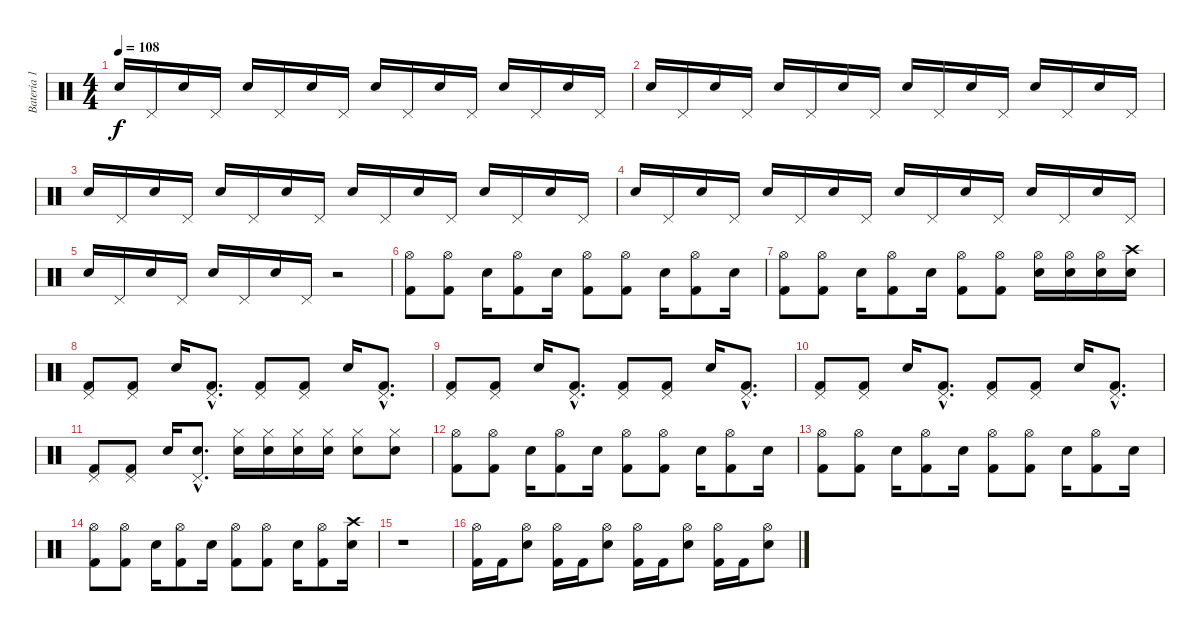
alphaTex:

\track ("Batería 1" "Batería 1") {instrument percussion}
\staff {score}
\articulation defaults
\ts (4 4)
\tempo 108
\clef neutral
\ks c "Snare (hit) 2".16{dy f} "Pedal Hi-Hat (hit)".16 "Snare (hit) 2".16 "Pedal Hi-Hat (hit)".16 "Snare (hit) 2".16 "Pedal Hi-Hat (hit)".16 "Snare (hit) 2".16 "Pedal Hi-Hat (hit)".16 "Snare (hit) 2".16 "Pedal Hi-Hat (hit)".16 "Snare (hit) 2".16 "Pedal Hi-Hat (hit)".16 "Snare (hit) 2".16 "Pedal Hi-Hat (hit)".16 "Snare (hit) 2".16 "Pedal Hi-Hat (hit)".16
|
"Snare (hit) 2".16 "Pedal Hi-Hat (hit)".16 "Snare (hit) 2".16 "Pedal Hi-Hat (hit)".16 "Snare (hit) 2".16 "Pedal Hi-Hat (hit)".16 "Snare (hit) 2".16 "Pedal Hi-Hat (hit)".16 "Snare (hit) 2".16 "Pedal Hi-Hat (hit)".16 "Snare (hit) 2".16 "Pedal Hi-Hat (hit)".16 "Snare (hit) 2".16 "Pedal Hi-Hat (hit)".16 "Snare (hit) 2".16 "Pedal Hi-Hat (hit)".16 |
"Snare (hit) 2".16 "Pedal Hi-Hat (hit)".16 "Snare (hit) 2".16 "Pedal Hi-Hat (hit)".16 "Snare (hit) 2".16 "Pedal Hi-Hat (hit)".16 "Snare (hit) 2".16 "Pedal Hi-Hat (hit)".16 "Snare (hit) 2".16 "Pedal Hi-Hat (hit)".16 "Snare (hit) 2".16 "Pedal Hi-Hat (hit)".16 "Snare (hit) 2".16 "Pedal Hi-Hat (hit)".16 "Snare (hit) 2".16 "Pedal Hi-Hat (hit)".16 |
"Snare (hit) 2".16 "Pedal Hi-Hat (hit)".16 "Snare (hit) 2".16 "Pedal Hi-Hat (hit)".16 "Snare (hit) 2".16 "Pedal Hi-Hat (hit)".16 "Snare (hit) 2".16 "Pedal Hi-Hat (hit)".16 "Snare (hit) 2".16 "Pedal Hi-Hat (hit)".16 "Snare (hit) 2".16 "Pedal Hi-Hat (hit)".16 "Snare (hit) 2".16 "Pedal Hi-Hat (hit)".16 "Snare (hit) 2".16 "Pedal Hi-Hat (hit)".16 |
"Snare (hit) 2".16 "Pedal Hi-Hat (hit)".16 "Snare (hit) 2".16 "Pedal Hi-Hat (hit)".16 "Snare (hit) 2".16 "Pedal Hi-Hat (hit)".16 "Snare (hit) 2".16 "Pedal Hi-Hat (hit)".16 r.2 |
("Hi-Hat (open)" "Kick (hit) 2").8 ("Hi-Hat (open)" "Kick (hit) 2").8 "Snare (hit) 2".16 ("Hi-Hat (open)" "Kick (hit) 2").8 "Snare (hit) 2".16 ("Hi-Hat (open)" "Kick (hit) 2").8 ("Hi-Hat (open)" "Kick (hit) 2").8 "Snare (hit) 2".16 ("Hi-Hat (open)" "Kick (hit) 2").8 "Snare (hit) 2".16 |
("Hi-Hat (open)" "Kick (hit) 2").8 ("Hi-Hat (open)" "Kick (hit) 2").8 "Snare (hit) 2".16 ("Hi-Hat (open)" "Kick (hit) 2").8 "Snare (hit) 2".16 ("Hi-Hat (open)" "Kick (hit) 2").8 ("Hi-Hat (open)" "Kick (hit) 2").8 ("Hi-Hat (open)" "Snare (hit) 2").16 ("Hi-Hat (open)" "Snare (hit) 2").16 ("Hi-Hat (open)" "Snare (hit) 2").16 ("Crash high (hit)" "Snare (hit) 2").16 |
("Pedal Hi-Hat (hit)" "Kick (hit) 2").8 ("Pedal Hi-Hat (hit)" "Kick (hit) 2").8 "Snare (hit) 2".16 ("Pedal Hi-Hat (hit)"{hac} "Kick (hit) 2"{hac}).8{d} ("Pedal Hi-Hat (hit)" "Kick (hit) 2").8 ("Pedal Hi-Hat (hit)" "Kick (hit) 2").8 "Snare (hit) 2".16 ("Pedal Hi-Hat (hit)"{hac} "Kick (hit) 2"{hac}).8{d} |
("Pedal Hi-Hat (hit)" "Kick (hit) 2").8 ("Pedal Hi-Hat (hit)" "Kick (hit) 2").8 "Snare (hit) 2".16 ("Pedal Hi-Hat (hit)"{hac} "Kick (hit) 2"{hac}).8{d} ("Pedal Hi-Hat (hit)" "Kick (hit) 2").8 ("Pedal Hi-Hat (hit)" "Kick (hit) 2").8 "Snare (hit) 2".16 ("Pedal Hi-Hat (hit)"{hac} "Kick (hit) 2"{hac}).8{d} |
("Pedal Hi-Hat (hit)" "Kick (hit) 2").8 ("Pedal Hi-Hat (hit)" "Kick (hit) 2").8 "Snare (hit) 2".16 ("Pedal Hi-Hat (hit)"{hac} "Kick (hit) 2"{hac}).8{d} ("Pedal Hi-Hat (hit)" "Kick (hit) 2").8 ("Pedal Hi-Hat (hit)" "Kick (hit) 2").8 "Snare (hit) 2".16 ("Pedal Hi-Hat (hit)"{hac} "Kick (hit) 2"{hac}).8{d} |
("Pedal Hi-Hat (hit)" "Kick (hit) 2").8 ("Pedal Hi-Hat (hit)" "Kick (hit) 2").8 "Snare (hit) 2".16 ("Pedal Hi-Hat (hit)"{hac} "Snare (hit) 2"{hac}).8{d} ("Hi-Hat (closed)" "Snare (hit) 2").16 ("Hi-Hat (closed)" "Snare (hit) 2").16 ("Hi-Hat (closed)" "Snare (hit) 2").16 ("Hi-Hat (closed)" "Snare (hit) 2").16 ("Hi-Hat (closed)" "Snare (hit) 2").8 ("Hi-Hat (closed)" "Snare (hit) 2").8 |
("Hi-Hat (open)" "Kick (hit) 2").8 ("Hi-Hat (open)" "Kick (hit) 2").8 "Snare (hit) 2".16 ("Hi-Hat (open)" "Kick (hit) 2").8 "Snare (hit) 2".16 ("Hi-Hat (open)" "Kick (hit) 2").8 ("Hi-Hat (open)" "Kick (hit) 2").8 "Snare (hit) 2".16 ("Hi-Hat (open)" "Kick (hit) 2").8 "Snare (hit) 2".16 |
("Hi-Hat (open)" "Kick (hit) 2").8 ("Hi-Hat (open)" "Kick (hit) 2").8 "Snare (hit) 2".16 ("Hi-Hat (open)" "Kick (hit) 2").8 "Snare (hit) 2".16 ("Hi-Hat (open)" "Kick (hit) 2").8 ("Hi-Hat (open)" "Kick (hit) 2").8 "Snare (hit) 2".16 ("Hi-Hat (open)" "Kick (hit) 2").8 "Snare (hit) 2".16 |
("Hi-Hat (open)" "Kick (hit) 2").8 ("Hi-Hat (open)" "Kick (hit) 2").8 "Snare (hit) 2".16 ("Hi-Hat (open)" "Kick (hit) 2").8 "Snare (hit) 2".16 ("Hi-Hat (open)" "Kick (hit) 2").8 ("Hi-Hat (open)" "Kick (hit) 2").8 "Snare (hit) 2".16 ("Hi-Hat (open)" "Kick (hit) 2").8 ("Crash high (hit)" "Snare (hit) 2").16 |
r.1 |
("Hi-Hat (open)" "Kick (hit) 2").16 "Kick (hit) 2".16 ("Hi-Hat (open)" "Snare (hit) 2").8 ("Hi-Hat (open)" "Kick (hit) 2").16 "Kick (hit) 2".16 ("Hi-Hat (open)" "Snare (hit) 2").8 ("Hi-Hat (open)" "Kick (hit) 2").16 "Kick (hit) 2".16 ("Hi-Hat (open)" "Snare (hit) 2").8 ("Hi-Hat (open)" "Kick (hit) 2").16 "Kick (hit) 2".16 ("Hi-Hat (open)" "Snare (hit) 2").8
